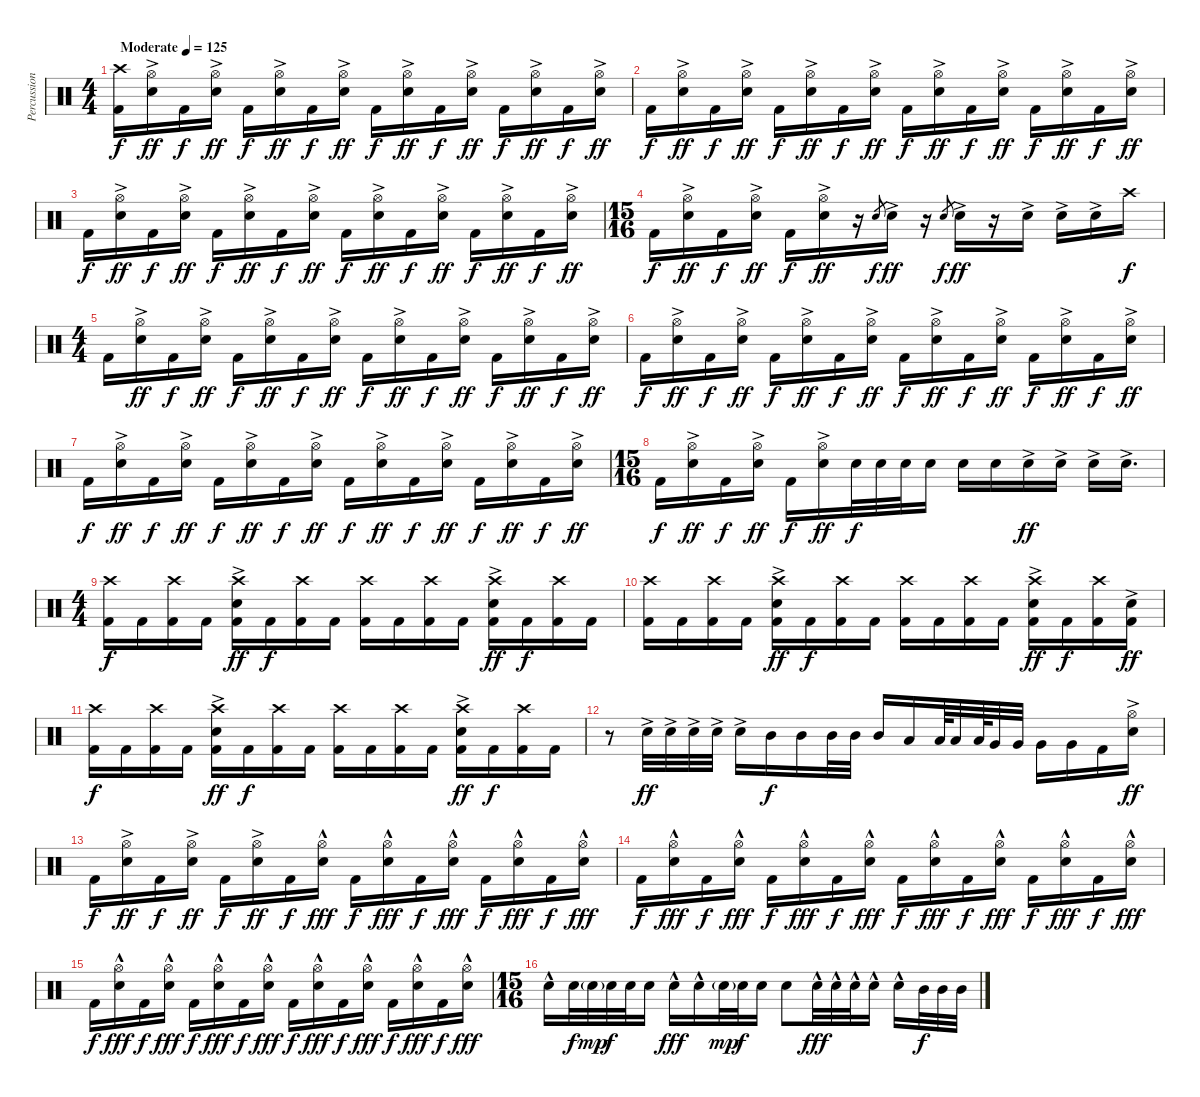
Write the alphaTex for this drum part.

\track ("Percussion" "Percussion") {instrument percussion}
\staff {score}
\articulation defaults
\ts (4 4)
\tempo (125 "Moderate")
\clef neutral
\ks c
("Crash high (hit)" "Kick (hit) 2").16{dy f} ("Hi-Hat (open)" "Electric Snare (hit)"{ac}).16{dy ff} "Kick (hit) 2".16{dy f} ("Hi-Hat (open)" "Electric Snare (hit)"{ac}).16{dy ff} "Kick (hit) 2".16{dy f} ("Hi-Hat (open)" "Electric Snare (hit)"{ac}).16{dy ff} "Kick (hit) 2".16{dy f} ("Hi-Hat (open)" "Electric Snare (hit)"{ac}).16{dy ff} "Kick (hit) 2".16{dy f} ("Hi-Hat (open)" "Electric Snare (hit)"{ac}).16{dy ff} "Kick (hit) 2".16{dy f} ("Hi-Hat (open)" "Electric Snare (hit)"{ac}).16{dy ff} "Kick (hit) 2".16{dy f} ("Hi-Hat (open)" "Electric Snare (hit)"{ac}).16{dy ff} "Kick (hit) 2".16{dy f} ("Hi-Hat (open)" "Electric Snare (hit)"{ac}).16{dy ff} |
"Kick (hit) 2".16{dy f} ("Hi-Hat (open)" "Electric Snare (hit)"{ac}).16{dy ff} "Kick (hit) 2".16{dy f} ("Hi-Hat (open)" "Electric Snare (hit)"{ac}).16{dy ff} "Kick (hit) 2".16{dy f} ("Hi-Hat (open)" "Electric Snare (hit)"{ac}).16{dy ff} "Kick (hit) 2".16{dy f} ("Hi-Hat (open)" "Electric Snare (hit)"{ac}).16{dy ff} "Kick (hit) 2".16{dy f} ("Hi-Hat (open)" "Electric Snare (hit)"{ac}).16{dy ff} "Kick (hit) 2".16{dy f} ("Hi-Hat (open)" "Electric Snare (hit)"{ac}).16{dy ff} "Kick (hit) 2".16{dy f} ("Hi-Hat (open)" "Electric Snare (hit)"{ac}).16{dy ff} "Kick (hit) 2".16{dy f} ("Hi-Hat (open)" "Electric Snare (hit)"{ac}).16{dy ff} |
"Kick (hit) 2".16{dy f} ("Hi-Hat (open)" "Electric Snare (hit)"{ac}).16{dy ff} "Kick (hit) 2".16{dy f} ("Hi-Hat (open)" "Electric Snare (hit)"{ac}).16{dy ff} "Kick (hit) 2".16{dy f} ("Hi-Hat (open)" "Electric Snare (hit)"{ac}).16{dy ff} "Kick (hit) 2".16{dy f} ("Hi-Hat (open)" "Electric Snare (hit)"{ac}).16{dy ff} "Kick (hit) 2".16{dy f} ("Hi-Hat (open)" "Electric Snare (hit)"{ac}).16{dy ff} "Kick (hit) 2".16{dy f} ("Hi-Hat (open)" "Electric Snare (hit)"{ac}).16{dy ff} "Kick (hit) 2".16{dy f} ("Hi-Hat (open)" "Electric Snare (hit)"{ac}).16{dy ff} "Kick (hit) 2".16{dy f} ("Hi-Hat (open)" "Electric Snare (hit)"{ac}).16{dy ff} |
\ts (15 16)
"Kick (hit) 2".16{dy f} ("Hi-Hat (open)" "Electric Snare (hit)"{ac}).16{dy ff} "Kick (hit) 2".16{dy f} ("Hi-Hat (open)" "Electric Snare (hit)"{ac}).16{dy ff} "Kick (hit) 2".16{dy f} ("Hi-Hat (open)" "Electric Snare (hit)"{ac}).16{dy ff} r.16 "Electric Snare (hit)".8{gr dy f} "Electric Snare (hit)"{ac}.16{dy ff} r.16 "Electric Snare (hit)".8{gr dy f} "Electric Snare (hit)"{ac}.16{dy ff} r.16 "Electric Snare (hit)"{ac}.16 "Electric Snare (hit)"{ac}.16 "Electric Snare (hit)"{ac}.16 "Crash high (hit)".16{dy f} |
\ts (4 4)
"Kick (hit) 2".16 ("Hi-Hat (open)" "Electric Snare (hit)"{ac}).16{dy ff} "Kick (hit) 2".16{dy f} ("Hi-Hat (open)" "Electric Snare (hit)"{ac}).16{dy ff} "Kick (hit) 2".16{dy f} ("Hi-Hat (open)" "Electric Snare (hit)"{ac}).16{dy ff} "Kick (hit) 2".16{dy f} ("Hi-Hat (open)" "Electric Snare (hit)"{ac}).16{dy ff} "Kick (hit) 2".16{dy f} ("Hi-Hat (open)" "Electric Snare (hit)"{ac}).16{dy ff} "Kick (hit) 2".16{dy f} ("Hi-Hat (open)" "Electric Snare (hit)"{ac}).16{dy ff} "Kick (hit) 2".16{dy f} ("Hi-Hat (open)" "Electric Snare (hit)"{ac}).16{dy ff} "Kick (hit) 2".16{dy f} ("Hi-Hat (open)" "Electric Snare (hit)"{ac}).16{dy ff} |
"Kick (hit) 2".16{dy f} ("Hi-Hat (open)" "Electric Snare (hit)"{ac}).16{dy ff} "Kick (hit) 2".16{dy f} ("Hi-Hat (open)" "Electric Snare (hit)"{ac}).16{dy ff} "Kick (hit) 2".16{dy f} ("Hi-Hat (open)" "Electric Snare (hit)"{ac}).16{dy ff} "Kick (hit) 2".16{dy f} ("Hi-Hat (open)" "Electric Snare (hit)"{ac}).16{dy ff} "Kick (hit) 2".16{dy f} ("Hi-Hat (open)" "Electric Snare (hit)"{ac}).16{dy ff} "Kick (hit) 2".16{dy f} ("Hi-Hat (open)" "Electric Snare (hit)"{ac}).16{dy ff} "Kick (hit) 2".16{dy f} ("Hi-Hat (open)" "Electric Snare (hit)"{ac}).16{dy ff} "Kick (hit) 2".16{dy f} ("Hi-Hat (open)" "Electric Snare (hit)"{ac}).16{dy ff} |
"Kick (hit) 2".16{dy f} ("Hi-Hat (open)" "Electric Snare (hit)"{ac}).16{dy ff} "Kick (hit) 2".16{dy f} ("Hi-Hat (open)" "Electric Snare (hit)"{ac}).16{dy ff} "Kick (hit) 2".16{dy f} ("Hi-Hat (open)" "Electric Snare (hit)"{ac}).16{dy ff} "Kick (hit) 2".16{dy f} ("Hi-Hat (open)" "Electric Snare (hit)"{ac}).16{dy ff} "Kick (hit) 2".16{dy f} ("Hi-Hat (open)" "Electric Snare (hit)"{ac}).16{dy ff} "Kick (hit) 2".16{dy f} ("Hi-Hat (open)" "Electric Snare (hit)"{ac}).16{dy ff} "Kick (hit) 2".16{dy f} ("Hi-Hat (open)" "Electric Snare (hit)"{ac}).16{dy ff} "Kick (hit) 2".16{dy f} ("Hi-Hat (open)" "Electric Snare (hit)"{ac}).16{dy ff} |
\ts (15 16)
"Kick (hit) 2".16{dy f} ("Hi-Hat (open)" "Electric Snare (hit)"{ac}).16{dy ff} "Kick (hit) 2".16{dy f} ("Hi-Hat (open)" "Electric Snare (hit)"{ac}).16{dy ff} "Kick (hit) 2".16{dy f} ("Hi-Hat (open)" "Electric Snare (hit)"{ac}).16{dy ff} "Electric Snare (hit)".32{dy f} "Electric Snare (hit)".32 "Electric Snare (hit)".32 "Electric Snare (hit)".16 "Electric Snare (hit)".16 "Electric Snare (hit)".16 "Electric Snare (hit)"{ac}.16{dy ff} "Electric Snare (hit)"{ac}.16 "Electric Snare (hit)"{ac}.16 "Electric Snare (hit)"{ac}.16{d} |
\ts (4 4)
("Crash high (hit)" "Kick (hit) 2").16{dy f} "Kick (hit) 2".16 ("Crash high (hit)" "Kick (hit) 2").16 "Kick (hit) 2".16 ("Crash high (hit)" "Electric Snare (hit)"{ac} "Kick (hit) 2").16{dy ff} "Kick (hit) 2".16{dy f} ("Crash high (hit)" "Kick (hit) 2").16 "Kick (hit) 2".16 ("Crash high (hit)" "Kick (hit) 2").16 "Kick (hit) 2".16 ("Crash high (hit)" "Kick (hit) 2").16 "Kick (hit) 2".16 ("Crash high (hit)" "Electric Snare (hit)"{ac} "Kick (hit) 2").16{dy ff} "Kick (hit) 2".16{dy f} ("Crash high (hit)" "Kick (hit) 2").16 "Kick (hit) 2".16 |
("Crash high (hit)" "Kick (hit) 2").16 "Kick (hit) 2".16 ("Crash high (hit)" "Kick (hit) 2").16 "Kick (hit) 2".16 ("Crash high (hit)" "Electric Snare (hit)"{ac} "Kick (hit) 2").16{dy ff} "Kick (hit) 2".16{dy f} ("Crash high (hit)" "Kick (hit) 2").16 "Kick (hit) 2".16 ("Crash high (hit)" "Kick (hit) 2").16 "Kick (hit) 2".16 ("Crash high (hit)" "Kick (hit) 2").16 "Kick (hit) 2".16 ("Crash high (hit)" "Electric Snare (hit)"{ac} "Kick (hit) 2").16{dy ff} "Kick (hit) 2".16{dy f} ("Crash high (hit)" "Kick (hit) 2").16 ("Electric Snare (hit)"{ac} "Kick (hit) 2").16{dy ff} |
("Crash high (hit)" "Kick (hit) 2").16{dy f} "Kick (hit) 2".16 ("Crash high (hit)" "Kick (hit) 2").16 "Kick (hit) 2".16 ("Crash high (hit)" "Electric Snare (hit)"{ac} "Kick (hit) 2").16{dy ff} "Kick (hit) 2".16{dy f} ("Crash high (hit)" "Kick (hit) 2").16 "Kick (hit) 2".16 ("Crash high (hit)" "Kick (hit) 2").16 "Kick (hit) 2".16 ("Crash high (hit)" "Kick (hit) 2").16 "Kick (hit) 2".16 ("Crash high (hit)" "Electric Snare (hit)"{ac} "Kick (hit) 2").16{dy ff} "Kick (hit) 2".16{dy f} ("Crash high (hit)" "Kick (hit) 2").16 "Kick (hit) 2".16 |
r.8 "Electric Snare (hit)"{ac}.32{dy ff} "Electric Snare (hit)"{ac}.32 "Electric Snare (hit)"{ac}.32 "Electric Snare (hit)"{ac}.32 "Electric Snare (hit)"{ac}.16 "Mid Tom (hit)".16{dy f} "Mid Tom (hit)".16 "Mid Tom (hit)".32 "Mid Tom (hit)".32 "Mid Tom (hit)".16 "Low Tom (hit)".16 "Low Tom (hit)".64 "Low Tom (hit)".32 "Low Tom (hit)".64 "Very Low Tom (hit)".32 "Very Low Tom (hit)".32 "Very Low Tom (hit)".16 "Very Low Tom (hit)".16 "Kick (hit) 2".16 ("Hi-Hat (open)" "Electric Snare (hit)"{ac}).16{dy ff} |
"Kick (hit) 2".16{dy f} ("Hi-Hat (open)" "Electric Snare (hit)"{ac}).16{dy ff} "Kick (hit) 2".16{dy f} ("Hi-Hat (open)" "Electric Snare (hit)"{ac}).16{dy ff} "Kick (hit) 2".16{dy f} ("Hi-Hat (open)" "Electric Snare (hit)"{ac}).16{dy ff} "Kick (hit) 2".16{dy f} ("Hi-Hat (open)" "Electric Snare (hit)"{hac}).16{dy fff} "Kick (hit) 2".16{dy f} ("Hi-Hat (open)" "Electric Snare (hit)"{hac}).16{dy fff} "Kick (hit) 2".16{dy f} ("Hi-Hat (open)" "Electric Snare (hit)"{hac}).16{dy fff} "Kick (hit) 2".16{dy f} ("Hi-Hat (open)" "Electric Snare (hit)"{hac}).16{dy fff} "Kick (hit) 2".16{dy f} ("Hi-Hat (open)" "Electric Snare (hit)"{hac}).16{dy fff} |
"Kick (hit) 2".16{dy f} ("Hi-Hat (open)" "Electric Snare (hit)"{hac}).16{dy fff} "Kick (hit) 2".16{dy f} ("Hi-Hat (open)" "Electric Snare (hit)"{hac}).16{dy fff} "Kick (hit) 2".16{dy f} ("Hi-Hat (open)" "Electric Snare (hit)"{hac}).16{dy fff} "Kick (hit) 2".16{dy f} ("Hi-Hat (open)" "Electric Snare (hit)"{hac}).16{dy fff} "Kick (hit) 2".16{dy f} ("Hi-Hat (open)" "Electric Snare (hit)"{hac}).16{dy fff} "Kick (hit) 2".16{dy f} ("Hi-Hat (open)" "Electric Snare (hit)"{hac}).16{dy fff} "Kick (hit) 2".16{dy f} ("Hi-Hat (open)" "Electric Snare (hit)"{hac}).16{dy fff} "Kick (hit) 2".16{dy f} ("Hi-Hat (open)" "Electric Snare (hit)"{hac}).16{dy fff} |
"Kick (hit) 2".16{dy f} ("Hi-Hat (open)" "Electric Snare (hit)"{hac}).16{dy fff} "Kick (hit) 2".16{dy f} ("Hi-Hat (open)" "Electric Snare (hit)"{hac}).16{dy fff} "Kick (hit) 2".16{dy f} ("Hi-Hat (open)" "Electric Snare (hit)"{hac}).16{dy fff} "Kick (hit) 2".16{dy f} ("Hi-Hat (open)" "Electric Snare (hit)"{hac}).16{dy fff} "Kick (hit) 2".16{dy f} ("Hi-Hat (open)" "Electric Snare (hit)"{hac}).16{dy fff} "Kick (hit) 2".16{dy f} ("Hi-Hat (open)" "Electric Snare (hit)"{hac}).16{dy fff} "Kick (hit) 2".16{dy f} ("Hi-Hat (open)" "Electric Snare (hit)"{hac}).16{dy fff} "Kick (hit) 2".16{dy f} ("Hi-Hat (open)" "Electric Snare (hit)"{hac}).16{dy fff} |
\ts (15 16)
"Electric Snare (hit)"{hac}.16 "Electric Snare (hit)".32{dy f} "Electric Snare (hit)"{g}.32{dy mp} "Electric Snare (hit)".32{dy f} "Electric Snare (hit)".32 "Electric Snare (hit)".16 "Electric Snare (hit)"{hac}.16{dy fff} "Electric Snare (hit)"{hac}.16 "Electric Snare (hit)"{g}.32{dy mp} "Electric Snare (hit)".32{dy f} "Electric Snare (hit)".16 "Electric Snare (hit)".8 "Electric Snare (hit)"{hac}.32{dy fff} "Electric Snare (hit)"{hac}.32 "Electric Snare (hit)"{hac}.32 "Electric Snare (hit)"{hac}.16 "Electric Snare (hit)"{hac}.16 "Mid Tom (hit)".32{dy f} "Mid Tom (hit)".32 "Mid Tom (hit)".32
